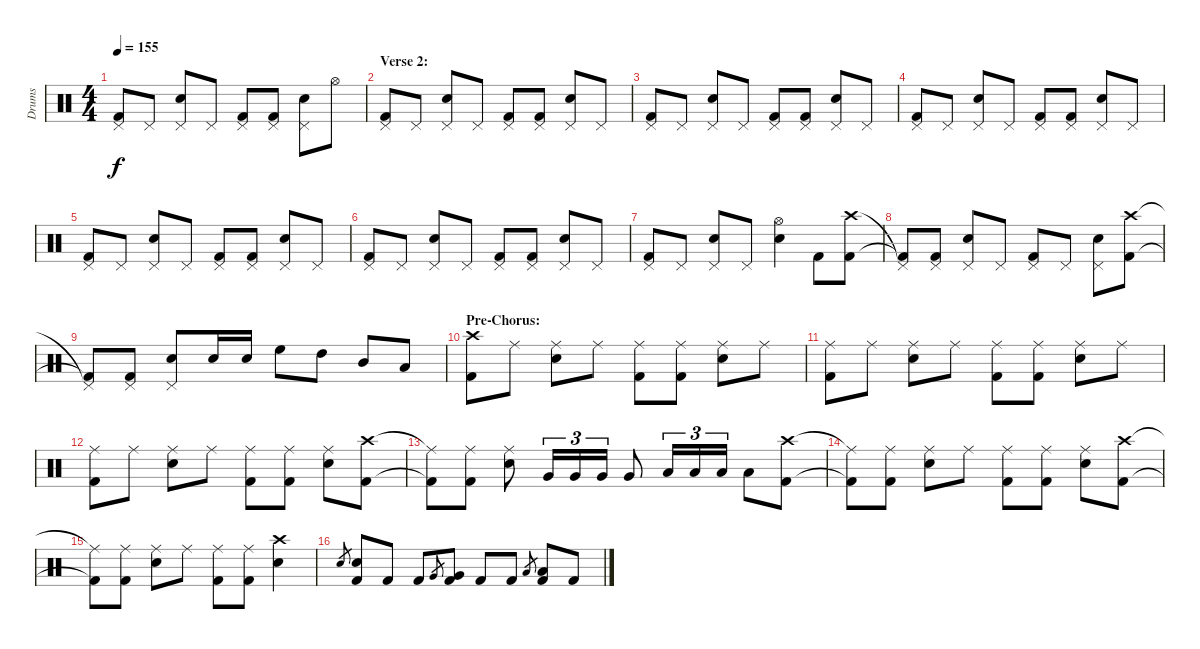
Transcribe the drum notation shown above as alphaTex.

\track ("Drums" "Drums") {instrument percussion}
\staff {score}
\articulation defaults
\ts (4 4)
\tempo 155
\clef neutral
\ks c
("Pedal Hi-Hat (hit)" "Kick (hit) 2").8{dy f} "Pedal Hi-Hat (hit)".8 ("Pedal Hi-Hat (hit)" "Electric Snare (hit)").8 "Pedal Hi-Hat (hit)".8 ("Pedal Hi-Hat (hit)" "Kick (hit) 2").8 ("Pedal Hi-Hat (hit)" "Kick (hit) 2").8 ("Pedal Hi-Hat (hit)" "Electric Snare (hit)").8 "Hi-Hat (open)".8 |
\section ("" "Verse 2:")
("Pedal Hi-Hat (hit)" "Kick (hit) 2").8 "Pedal Hi-Hat (hit)".8 ("Pedal Hi-Hat (hit)" "Electric Snare (hit)").8 "Pedal Hi-Hat (hit)".8 ("Pedal Hi-Hat (hit)" "Kick (hit) 2").8 ("Pedal Hi-Hat (hit)" "Kick (hit) 2").8 ("Pedal Hi-Hat (hit)" "Electric Snare (hit)").8 "Pedal Hi-Hat (hit)".8 |
("Pedal Hi-Hat (hit)" "Kick (hit) 2").8 "Pedal Hi-Hat (hit)".8 ("Pedal Hi-Hat (hit)" "Electric Snare (hit)").8 "Pedal Hi-Hat (hit)".8 ("Pedal Hi-Hat (hit)" "Kick (hit) 2").8 ("Pedal Hi-Hat (hit)" "Kick (hit) 2").8 ("Pedal Hi-Hat (hit)" "Electric Snare (hit)").8 "Pedal Hi-Hat (hit)".8 |
("Pedal Hi-Hat (hit)" "Kick (hit) 2").8 "Pedal Hi-Hat (hit)".8 ("Pedal Hi-Hat (hit)" "Electric Snare (hit)").8 "Pedal Hi-Hat (hit)".8 ("Pedal Hi-Hat (hit)" "Kick (hit) 2").8 ("Pedal Hi-Hat (hit)" "Kick (hit) 2").8 ("Pedal Hi-Hat (hit)" "Electric Snare (hit)").8 "Pedal Hi-Hat (hit)".8 |
("Pedal Hi-Hat (hit)" "Kick (hit) 2").8 "Pedal Hi-Hat (hit)".8 ("Pedal Hi-Hat (hit)" "Electric Snare (hit)").8 "Pedal Hi-Hat (hit)".8 ("Pedal Hi-Hat (hit)" "Kick (hit) 2").8 ("Pedal Hi-Hat (hit)" "Kick (hit) 2").8 ("Pedal Hi-Hat (hit)" "Electric Snare (hit)").8 "Pedal Hi-Hat (hit)".8 |
("Pedal Hi-Hat (hit)" "Kick (hit) 2").8 "Pedal Hi-Hat (hit)".8 ("Pedal Hi-Hat (hit)" "Electric Snare (hit)").8 "Pedal Hi-Hat (hit)".8 ("Pedal Hi-Hat (hit)" "Kick (hit) 2").8 ("Pedal Hi-Hat (hit)" "Kick (hit) 2").8 ("Pedal Hi-Hat (hit)" "Electric Snare (hit)").8 "Pedal Hi-Hat (hit)".8 |
("Pedal Hi-Hat (hit)" "Kick (hit) 2").8 "Pedal Hi-Hat (hit)".8 ("Pedal Hi-Hat (hit)" "Electric Snare (hit)").8 "Pedal Hi-Hat (hit)".8 ("Hi-Hat (open)" "Electric Snare (hit)").4 "Kick (hit) 2".8 ("Crash high (hit)" "Kick (hit) 2").8 |
("Pedal Hi-Hat (hit)"{t} "Kick (hit) 2"{t}).8 ("Pedal Hi-Hat (hit)" "Kick (hit) 2").8 ("Pedal Hi-Hat (hit)" "Electric Snare (hit)").8 "Pedal Hi-Hat (hit)".8 ("Pedal Hi-Hat (hit)" "Kick (hit) 2").8 "Pedal Hi-Hat (hit)".8 ("Pedal Hi-Hat (hit)" "Electric Snare (hit)").8 ("Crash high (hit)" "Kick (hit) 2").8 |
("Pedal Hi-Hat (hit)"{t} "Kick (hit) 2"{t}).8 ("Pedal Hi-Hat (hit)" "Kick (hit) 2").8 ("Pedal Hi-Hat (hit)" "Electric Snare (hit)").8 "Electric Snare (hit)".16 "Electric Snare (hit)".16 "High Floor Tom (hit)".8 "High Tom (hit)".8 "Mid Tom (hit)".8 "Low Tom (hit)".8 |
\section ("" "Pre-Chorus:")
("Crash high (hit)" "Kick (hit) 2").8 "Ride (middle)".8 ("Ride (middle)" "Electric Snare (hit)").8 "Ride (middle)".8 ("Ride (middle)" "Kick (hit) 2").8 ("Ride (middle)" "Kick (hit) 2").8 ("Ride (middle)" "Electric Snare (hit)").8 "Ride (middle)".8 |
("Ride (middle)" "Kick (hit) 2").8 "Ride (middle)".8 ("Ride (middle)" "Electric Snare (hit)").8 "Ride (middle)".8 ("Ride (middle)" "Kick (hit) 2").8 ("Ride (middle)" "Kick (hit) 2").8 ("Ride (middle)" "Electric Snare (hit)").8 "Ride (middle)".8 |
("Ride (middle)" "Kick (hit) 2").8 "Ride (middle)".8 ("Ride (middle)" "Electric Snare (hit)").8 "Ride (middle)".8 ("Ride (middle)" "Kick (hit) 2").8 ("Ride (middle)" "Kick (hit) 2").8 ("Ride (middle)" "Electric Snare (hit)").8 ("Crash high (hit)" "Kick (hit) 2").8 |
("Ride (middle)"{t} "Kick (hit) 2"{t}).8 ("Ride (middle)" "Kick (hit) 2").8 ("Ride (middle)" "Electric Snare (hit)").8 "Very Low Tom (hit)".16{tu (3 2)} "Very Low Tom (hit)".16{tu (3 2)} "Very Low Tom (hit)".16{tu (3 2)} "Very Low Tom (hit)".8 "Low Floor Tom (hit)".16{tu (3 2)} "Low Floor Tom (hit)".16{tu (3 2)} "Low Floor Tom (hit)".16{tu (3 2)} "Low Floor Tom (hit)".8 ("Crash high (hit)" "Kick (hit) 2").8 |
("Ride (middle)"{t} "Kick (hit) 2"{t}).8 ("Ride (middle)" "Kick (hit) 2").8 ("Ride (middle)" "Electric Snare (hit)").8 "Ride (middle)".8 ("Ride (middle)" "Kick (hit) 2").8 ("Ride (middle)" "Kick (hit) 2").8 ("Ride (middle)" "Electric Snare (hit)").8 ("Crash high (hit)" "Kick (hit) 2").8 |
("Ride (middle)"{t} "Kick (hit) 2"{t}).8 ("Ride (middle)" "Kick (hit) 2").8 ("Ride (middle)" "Electric Snare (hit)").8 "Ride (middle)".8 ("Ride (middle)" "Kick (hit) 2").8 ("Ride (middle)" "Kick (hit) 2").8 ("Crash high (hit)" "Electric Snare (hit)").4 |
"Electric Snare (hit)".8{gr} ("Electric Snare (hit)" "Kick (hit) 2").8 "Kick (hit) 2".8 "Kick (hit) 2".8 "Very Low Tom (hit)".8{gr} ("Very Low Tom (hit)" "Kick (hit) 2").8 "Kick (hit) 2".8 "Kick (hit) 2".8 "Low Floor Tom (hit)".8{gr} ("Low Floor Tom (hit)" "Kick (hit) 2").8 "Kick (hit) 2".8
